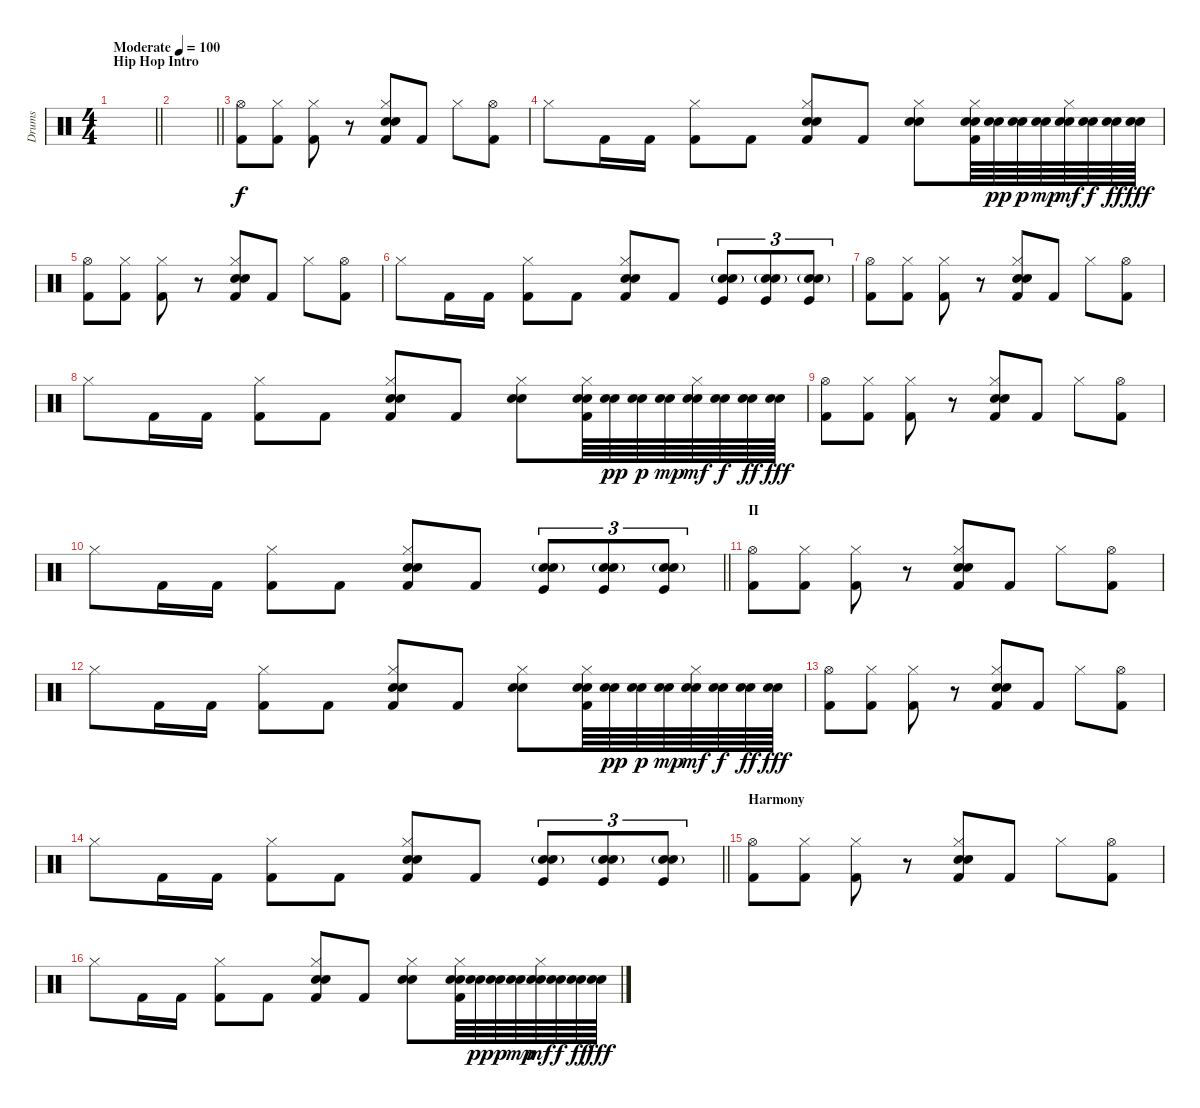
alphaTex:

\track ("Drums" "Drums") {instrument percussion}
\staff {score}
\articulation defaults
\ts (4 4)
\section ("" "Hip Hop Intro")
\tempo (100 "Moderate")
\tempo 150
\tempo (100 "Moderate")
\clef neutral
\barLineRight lightlight
\ks c
|
\barLineRight lightlight
|
("Hi-Hat (open)" "Kick (hit) 2").8 ("Hi-Hat (closed)" "Kick (hit) 2").8 ("Hi-Hat (closed)" "Kick (hit) 2").8 r.8 ("Hi-Hat (closed)" "Hand Clap (hit)" "Snare (hit) 2" "Kick (hit) 2").8 "Kick (hit) 2".8 "Hi-Hat (closed)".8 ("Hi-Hat (open)" "Kick (hit) 2").8 |
"Hi-Hat (closed)".8 "Kick (hit) 2".16 "Kick (hit) 2".16 ("Hi-Hat (closed)" "Kick (hit) 2").8 "Kick (hit) 2".8 ("Hi-Hat (closed)" "Hand Clap (hit)" "Snare (hit) 2" "Kick (hit) 2").8 "Kick (hit) 2".8 ("Hi-Hat (closed)" "Hand Clap (hit)" "Snare (hit) 2").8 ("Hi-Hat (closed)" "Hand Clap (hit)" "Snare (hit) 2" "Kick (hit) 2").64 ("Hand Clap (hit)" "Snare (hit) 2").64{dy pp} ("Hand Clap (hit)" "Snare (hit) 2").64{dy p} ("Hand Clap (hit)" "Snare (hit) 2").64{dy mp} ("Hi-Hat (closed)" "Hand Clap (hit)" "Snare (hit) 2").64{dy mf} ("Hand Clap (hit)" "Snare (hit) 2").64{dy f} ("Hand Clap (hit)" "Snare (hit) 2").64{dy ff} ("Hand Clap (hit)" "Snare (hit) 2").64{dy fff} |
("Hi-Hat (open)" "Kick (hit) 2").8 ("Hi-Hat (closed)" "Kick (hit) 2").8 ("Hi-Hat (closed)" "Kick (hit) 2").8 r.8 ("Hi-Hat (closed)" "Hand Clap (hit)" "Snare (hit) 2" "Kick (hit) 2").8 "Kick (hit) 2".8 "Hi-Hat (closed)".8 ("Hi-Hat (open)" "Kick (hit) 2").8 |
"Hi-Hat (closed)".8 "Kick (hit) 2".16 "Kick (hit) 2".16 ("Hi-Hat (closed)" "Kick (hit) 2").8 "Kick (hit) 2".8 ("Hi-Hat (closed)" "Hand Clap (hit)" "Snare (hit) 2" "Kick (hit) 2").8 "Kick (hit) 2".8 ("Hand Clap (hit)"{g} "Snare (hit) 2" "Kick (hit)").8{tu (3 2)} ("Hand Clap (hit)"{g} "Snare (hit) 2" "Kick (hit)").8{tu (3 2)} ("Hand Clap (hit)"{g} "Snare (hit) 2" "Kick (hit)").8{tu (3 2)} |
("Hi-Hat (open)" "Kick (hit) 2").8 ("Hi-Hat (closed)" "Kick (hit) 2").8 ("Hi-Hat (closed)" "Kick (hit) 2").8 r.8 ("Hi-Hat (closed)" "Hand Clap (hit)" "Snare (hit) 2" "Kick (hit) 2").8 "Kick (hit) 2".8 "Hi-Hat (closed)".8 ("Hi-Hat (open)" "Kick (hit) 2").8 |
"Hi-Hat (closed)".8 "Kick (hit) 2".16 "Kick (hit) 2".16 ("Hi-Hat (closed)" "Kick (hit) 2").8 "Kick (hit) 2".8 ("Hi-Hat (closed)" "Hand Clap (hit)" "Snare (hit) 2" "Kick (hit) 2").8 "Kick (hit) 2".8 ("Hi-Hat (closed)" "Hand Clap (hit)" "Snare (hit) 2").8 ("Hi-Hat (closed)" "Hand Clap (hit)" "Snare (hit) 2" "Kick (hit) 2").64 ("Hand Clap (hit)" "Snare (hit) 2").64{dy pp} ("Hand Clap (hit)" "Snare (hit) 2").64{dy p} ("Hand Clap (hit)" "Snare (hit) 2").64{dy mp} ("Hi-Hat (closed)" "Hand Clap (hit)" "Snare (hit) 2").64{dy mf} ("Hand Clap (hit)" "Snare (hit) 2").64{dy f} ("Hand Clap (hit)" "Snare (hit) 2").64{dy ff} ("Hand Clap (hit)" "Snare (hit) 2").64{dy fff} |
("Hi-Hat (open)" "Kick (hit) 2").8 ("Hi-Hat (closed)" "Kick (hit) 2").8 ("Hi-Hat (closed)" "Kick (hit) 2").8 r.8 ("Hi-Hat (closed)" "Hand Clap (hit)" "Snare (hit) 2" "Kick (hit) 2").8 "Kick (hit) 2".8 "Hi-Hat (closed)".8 ("Hi-Hat (open)" "Kick (hit) 2").8 |
\barLineRight lightlight "Hi-Hat (closed)".8 "Kick (hit) 2".16 "Kick (hit) 2".16
("Hi-Hat (closed)" "Kick (hit) 2").8 "Kick (hit) 2".8 ("Hi-Hat (closed)" "Hand Clap (hit)" "Snare (hit) 2" "Kick (hit) 2").8 "Kick (hit) 2".8 ("Hand Clap (hit)"{g} "Snare (hit) 2" "Kick (hit)").8{tu (3 2)} ("Hand Clap (hit)"{g} "Snare (hit) 2" "Kick (hit)").8{tu (3 2)} ("Hand Clap (hit)"{g} "Snare (hit) 2" "Kick (hit)").8{tu (3 2)} |
\section ("" "II")
("Hi-Hat (open)" "Kick (hit) 2").8 ("Hi-Hat (closed)" "Kick (hit) 2").8 ("Hi-Hat (closed)" "Kick (hit) 2").8 r.8 ("Hi-Hat (closed)" "Hand Clap (hit)" "Snare (hit) 2" "Kick (hit) 2").8 "Kick (hit) 2".8 "Hi-Hat (closed)".8 ("Hi-Hat (open)" "Kick (hit) 2").8 |
"Hi-Hat (closed)".8 "Kick (hit) 2".16 "Kick (hit) 2".16 ("Hi-Hat (closed)" "Kick (hit) 2").8 "Kick (hit) 2".8 ("Hi-Hat (closed)" "Hand Clap (hit)" "Snare (hit) 2" "Kick (hit) 2").8 "Kick (hit) 2".8 ("Hi-Hat (closed)" "Hand Clap (hit)" "Snare (hit) 2").8 ("Hi-Hat (closed)" "Hand Clap (hit)" "Snare (hit) 2" "Kick (hit) 2").64 ("Hand Clap (hit)" "Snare (hit) 2").64{dy pp} ("Hand Clap (hit)" "Snare (hit) 2").64{dy p} ("Hand Clap (hit)" "Snare (hit) 2").64{dy mp} ("Hi-Hat (closed)" "Hand Clap (hit)" "Snare (hit) 2").64{dy mf} ("Hand Clap (hit)" "Snare (hit) 2").64{dy f} ("Hand Clap (hit)" "Snare (hit) 2").64{dy ff} ("Hand Clap (hit)" "Snare (hit) 2").64{dy fff} |
("Hi-Hat (open)" "Kick (hit) 2").8 ("Hi-Hat (closed)" "Kick (hit) 2").8 ("Hi-Hat (closed)" "Kick (hit) 2").8 r.8 ("Hi-Hat (closed)" "Hand Clap (hit)" "Snare (hit) 2" "Kick (hit) 2").8 "Kick (hit) 2".8 "Hi-Hat (closed)".8 ("Hi-Hat (open)" "Kick (hit) 2").8 |
\barLineRight lightlight "Hi-Hat (closed)".8 "Kick (hit) 2".16 "Kick (hit) 2".16
("Hi-Hat (closed)" "Kick (hit) 2").8 "Kick (hit) 2".8 ("Hi-Hat (closed)" "Hand Clap (hit)" "Snare (hit) 2" "Kick (hit) 2").8 "Kick (hit) 2".8 ("Hand Clap (hit)"{g} "Snare (hit) 2" "Kick (hit)").8{tu (3 2)} ("Hand Clap (hit)"{g} "Snare (hit) 2" "Kick (hit)").8{tu (3 2)} ("Hand Clap (hit)"{g} "Snare (hit) 2" "Kick (hit)").8{tu (3 2)} |
\section ("" "Harmony")
("Hi-Hat (open)" "Kick (hit) 2").8 ("Hi-Hat (closed)" "Kick (hit) 2").8 ("Hi-Hat (closed)" "Kick (hit) 2").8 r.8 ("Hi-Hat (closed)" "Hand Clap (hit)" "Snare (hit) 2" "Kick (hit) 2").8 "Kick (hit) 2".8 "Hi-Hat (closed)".8 ("Hi-Hat (open)" "Kick (hit) 2").8 |
"Hi-Hat (closed)".8 "Kick (hit) 2".16 "Kick (hit) 2".16 ("Hi-Hat (closed)" "Kick (hit) 2").8 "Kick (hit) 2".8 ("Hi-Hat (closed)" "Hand Clap (hit)" "Snare (hit) 2" "Kick (hit) 2").8 "Kick (hit) 2".8 ("Hi-Hat (closed)" "Hand Clap (hit)" "Snare (hit) 2").8 ("Hi-Hat (closed)" "Hand Clap (hit)" "Snare (hit) 2" "Kick (hit) 2").64 ("Hand Clap (hit)" "Snare (hit) 2").64{dy pp} ("Hand Clap (hit)" "Snare (hit) 2").64{dy p} ("Hand Clap (hit)" "Snare (hit) 2").64{dy mp} ("Hi-Hat (closed)" "Hand Clap (hit)" "Snare (hit) 2").64{dy mf} ("Hand Clap (hit)" "Snare (hit) 2").64{dy f} ("Hand Clap (hit)" "Snare (hit) 2").64{dy ff} ("Hand Clap (hit)" "Snare (hit) 2").64{dy fff}
